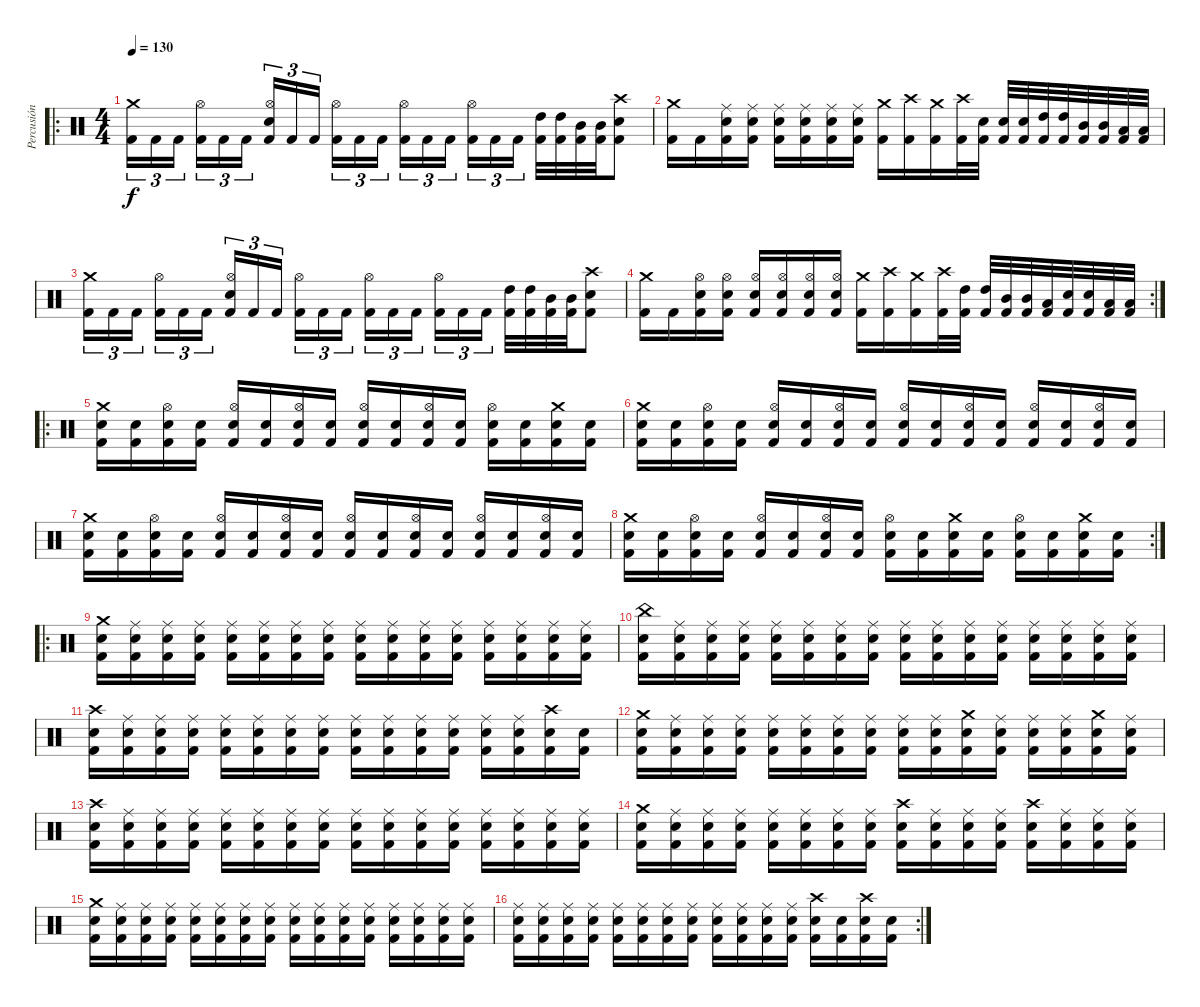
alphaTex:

\track ("Percusión" "Percusión") {instrument percussion}
\staff {score}
\articulation defaults
\ro
\ts (4 4)
\tempo 130
\clef neutral
\ks c
("Crash medium (hit)" "Kick (hit) 2").16{tu (3 2) dy f} "Kick (hit) 2".16{tu (3 2)} "Kick (hit) 2".16{tu (3 2)} ("Hi-Hat (open)" "Kick (hit) 2").16{tu (3 2)} "Kick (hit) 2".16{tu (3 2)} "Kick (hit) 2".16{tu (3 2)} ("Hi-Hat (open)" "Electric Snare (hit)" "Kick (hit) 2").16{tu (3 2)} "Kick (hit) 2".16{tu (3 2)} "Kick (hit) 2".16{tu (3 2)} ("Hi-Hat (open)" "Kick (hit) 2").16{tu (3 2)} "Kick (hit) 2".16{tu (3 2)} "Kick (hit) 2".16{tu (3 2)} ("Hi-Hat (open)" "Kick (hit) 2").16{tu (3 2)} "Kick (hit) 2".16{tu (3 2)} "Kick (hit) 2".16{tu (3 2)} ("Hi-Hat (open)" "Kick (hit) 2").16{tu (3 2)} "Kick (hit) 2".16{tu (3 2)} "Kick (hit) 2".16{tu (3 2)} ("High Tom (hit)" "Kick (hit) 2").32 ("High Tom (hit)" "Kick (hit) 2").32 ("Mid Tom (hit)" "Kick (hit) 2").32 ("Mid Tom (hit)" "Kick (hit) 2").32 ("Crash high (hit)" "Electric Snare (hit)" "Kick (hit) 2").8 |
("Crash medium (hit)" "Kick (hit) 2").16 "Kick (hit) 2".16 ("Ride (middle)" "Electric Snare (hit)" "Kick (hit) 2").16 ("Ride (middle)" "Electric Snare (hit)" "Kick (hit) 2").16 ("Ride (middle)" "Electric Snare (hit)" "Kick (hit) 2").16 ("Ride (middle)" "Electric Snare (hit)" "Kick (hit) 2").16 ("Ride (middle)" "Electric Snare (hit)" "Kick (hit) 2").16 ("Ride (middle)" "Electric Snare (hit)" "Kick (hit) 2").16 ("Crash medium (hit)" "Kick (hit) 2").16 ("Crash high (hit)" "Kick (hit) 2").16 ("Crash medium (hit)" "Kick (hit) 2").16 ("Crash high (hit)" "Kick (hit) 2").32 ("Electric Snare (hit)" "Kick (hit) 2").32 ("Electric Snare (hit)" "Kick (hit) 2").32 ("Electric Snare (hit)" "Kick (hit) 2").32 ("High Tom (hit)" "Kick (hit) 2").32 ("High Tom (hit)" "Kick (hit) 2").32 ("Mid Tom (hit)" "Kick (hit) 2").32 ("Mid Tom (hit)" "Kick (hit) 2").32 ("Low Tom (hit)" "Kick (hit) 2").32 ("Low Tom (hit)" "Kick (hit) 2").32 |
("Crash medium (hit)" "Kick (hit) 2").16{tu (3 2)} "Kick (hit) 2".16{tu (3 2)} "Kick (hit) 2".16{tu (3 2)} ("Hi-Hat (open)" "Kick (hit) 2").16{tu (3 2)} "Kick (hit) 2".16{tu (3 2)} "Kick (hit) 2".16{tu (3 2)} ("Hi-Hat (open)" "Electric Snare (hit)" "Kick (hit) 2").16{tu (3 2)} "Kick (hit) 2".16{tu (3 2)} "Kick (hit) 2".16{tu (3 2)} ("Hi-Hat (open)" "Kick (hit) 2").16{tu (3 2)} "Kick (hit) 2".16{tu (3 2)} "Kick (hit) 2".16{tu (3 2)} ("Hi-Hat (open)" "Kick (hit) 2").16{tu (3 2)} "Kick (hit) 2".16{tu (3 2)} "Kick (hit) 2".16{tu (3 2)} ("Hi-Hat (open)" "Kick (hit) 2").16{tu (3 2)} "Kick (hit) 2".16{tu (3 2)} "Kick (hit) 2".16{tu (3 2)} ("High Tom (hit)" "Kick (hit) 2").32 ("High Tom (hit)" "Kick (hit) 2").32 ("Mid Tom (hit)" "Kick (hit) 2").32 ("Mid Tom (hit)" "Kick (hit) 2").32 ("Crash high (hit)" "Electric Snare (hit)" "Kick (hit) 2").8 |
\rc 2
("Crash medium (hit)" "Kick (hit) 2").16 "Kick (hit) 2".16 ("Hi-Hat (open)" "Electric Snare (hit)" "Kick (hit) 2").16 ("Hi-Hat (open)" "Electric Snare (hit)" "Kick (hit) 2").16 ("Hi-Hat (open)" "Electric Snare (hit)" "Kick (hit) 2").16 ("Hi-Hat (open)" "Electric Snare (hit)" "Kick (hit) 2").16 ("Hi-Hat (open)" "Electric Snare (hit)" "Kick (hit) 2").16 ("Hi-Hat (open)" "Electric Snare (hit)" "Kick (hit) 2").16 ("Crash medium (hit)" "Kick (hit) 2").16 ("Crash high (hit)" "Kick (hit) 2").16 ("Crash medium (hit)" "Kick (hit) 2").16 ("Crash high (hit)" "Kick (hit) 2").32 ("High Tom (hit)" "Kick (hit) 2").32 ("High Tom (hit)" "Kick (hit) 2").32 ("Mid Tom (hit)" "Kick (hit) 2").32 ("Mid Tom (hit)" "Kick (hit) 2").32 ("Low Tom (hit)" "Kick (hit) 2").32 ("Electric Snare (hit)" "Kick (hit) 2").32 ("Electric Snare (hit)" "Kick (hit) 2").32 ("Low Tom (hit)" "Kick (hit) 2").32 ("Low Tom (hit)" "Kick (hit) 2").32 |
\ro
("Crash medium (hit)" "Electric Snare (hit)" "Kick (hit) 2").16 ("Electric Snare (hit)" "Kick (hit) 2").16 ("Hi-Hat (open)" "Electric Snare (hit)" "Kick (hit) 2").16 ("Electric Snare (hit)" "Kick (hit) 2").16 ("Hi-Hat (open)" "Electric Snare (hit)" "Kick (hit) 2").16 ("Electric Snare (hit)" "Kick (hit) 2").16 ("Hi-Hat (open)" "Electric Snare (hit)" "Kick (hit) 2").16 ("Electric Snare (hit)" "Kick (hit) 2").16 ("Hi-Hat (open)" "Electric Snare (hit)" "Kick (hit) 2").16 ("Electric Snare (hit)" "Kick (hit) 2").16 ("Hi-Hat (open)" "Electric Snare (hit)" "Kick (hit) 2").16 ("Electric Snare (hit)" "Kick (hit) 2").16 ("Hi-Hat (open)" "Electric Snare (hit)" "Kick (hit) 2").16 ("Electric Snare (hit)" "Kick (hit) 2").16 ("Crash medium (hit)" "Electric Snare (hit)" "Kick (hit) 2").16 ("Electric Snare (hit)" "Kick (hit) 2").16 |
("Crash medium (hit)" "Electric Snare (hit)" "Kick (hit) 2").16 ("Electric Snare (hit)" "Kick (hit) 2").16 ("Hi-Hat (open)" "Electric Snare (hit)" "Kick (hit) 2").16 ("Electric Snare (hit)" "Kick (hit) 2").16 ("Hi-Hat (open)" "Electric Snare (hit)" "Kick (hit) 2").16 ("Electric Snare (hit)" "Kick (hit) 2").16 ("Hi-Hat (open)" "Electric Snare (hit)" "Kick (hit) 2").16 ("Electric Snare (hit)" "Kick (hit) 2").16 ("Hi-Hat (open)" "Electric Snare (hit)" "Kick (hit) 2").16 ("Electric Snare (hit)" "Kick (hit) 2").16 ("Hi-Hat (open)" "Electric Snare (hit)" "Kick (hit) 2").16 ("Electric Snare (hit)" "Kick (hit) 2").16 ("Hi-Hat (open)" "Electric Snare (hit)" "Kick (hit) 2").16 ("Electric Snare (hit)" "Kick (hit) 2").16 ("Hi-Hat (open)" "Electric Snare (hit)" "Kick (hit) 2").16 ("Electric Snare (hit)" "Kick (hit) 2").16 |
("Crash medium (hit)" "Electric Snare (hit)" "Kick (hit) 2").16 ("Electric Snare (hit)" "Kick (hit) 2").16 ("Hi-Hat (open)" "Electric Snare (hit)" "Kick (hit) 2").16 ("Electric Snare (hit)" "Kick (hit) 2").16 ("Hi-Hat (open)" "Electric Snare (hit)" "Kick (hit) 2").16 ("Electric Snare (hit)" "Kick (hit) 2").16 ("Hi-Hat (open)" "Electric Snare (hit)" "Kick (hit) 2").16 ("Electric Snare (hit)" "Kick (hit) 2").16 ("Hi-Hat (open)" "Electric Snare (hit)" "Kick (hit) 2").16 ("Electric Snare (hit)" "Kick (hit) 2").16 ("Hi-Hat (open)" "Electric Snare (hit)" "Kick (hit) 2").16 ("Electric Snare (hit)" "Kick (hit) 2").16 ("Hi-Hat (open)" "Electric Snare (hit)" "Kick (hit) 2").16 ("Electric Snare (hit)" "Kick (hit) 2").16 ("Hi-Hat (open)" "Electric Snare (hit)" "Kick (hit) 2").16 ("Electric Snare (hit)" "Kick (hit) 2").16 |
\rc 2
("Crash medium (hit)" "Electric Snare (hit)" "Kick (hit) 2").16 ("Electric Snare (hit)" "Kick (hit) 2").16 ("Hi-Hat (open)" "Electric Snare (hit)" "Kick (hit) 2").16 ("Electric Snare (hit)" "Kick (hit) 2").16 ("Hi-Hat (open)" "Electric Snare (hit)" "Kick (hit) 2").16 ("Electric Snare (hit)" "Kick (hit) 2").16 ("Hi-Hat (open)" "Electric Snare (hit)" "Kick (hit) 2").16 ("Electric Snare (hit)" "Kick (hit) 2").16 ("Hi-Hat (open)" "Electric Snare (hit)" "Kick (hit) 2").16 ("Electric Snare (hit)" "Kick (hit) 2").16 ("Crash medium (hit)" "Electric Snare (hit)" "Kick (hit) 2").16 ("Electric Snare (hit)" "Kick (hit) 2").16 ("Hi-Hat (open)" "Electric Snare (hit)" "Kick (hit) 2").16 ("Electric Snare (hit)" "Kick (hit) 2").16 ("Crash medium (hit)" "Electric Snare (hit)" "Kick (hit) 2").16 ("Electric Snare (hit)" "Kick (hit) 2").16 |
\ro
("Crash medium (hit)" "Electric Snare (hit)" "Kick (hit) 2").16 ("Ride (middle)" "Electric Snare (hit)" "Kick (hit) 2").16 ("Ride (middle)" "Electric Snare (hit)" "Kick (hit) 2").16 ("Ride (middle)" "Electric Snare (hit)" "Kick (hit) 2").16 ("Ride (middle)" "Electric Snare (hit)" "Kick (hit) 2").16 ("Ride (middle)" "Electric Snare (hit)" "Kick (hit) 2").16 ("Ride (middle)" "Electric Snare (hit)" "Kick (hit) 2").16 ("Ride (middle)" "Electric Snare (hit)" "Kick (hit) 2").16 ("Ride (middle)" "Electric Snare (hit)" "Kick (hit) 2").16 ("Ride (middle)" "Electric Snare (hit)" "Kick (hit) 2").16 ("Ride (middle)" "Electric Snare (hit)" "Kick (hit) 2").16 ("Ride (middle)" "Electric Snare (hit)" "Kick (hit) 2").16 ("Ride (middle)" "Electric Snare (hit)" "Kick (hit) 2").16 ("Ride (middle)" "Electric Snare (hit)" "Kick (hit) 2").16 ("Ride (middle)" "Electric Snare (hit)" "Kick (hit) 2").16 ("Ride (middle)" "Electric Snare (hit)" "Kick (hit) 2").16 |
("China (hit)" "Electric Snare (hit)" "Kick (hit) 2").16 ("Ride (middle)" "Electric Snare (hit)" "Kick (hit) 2").16 ("Ride (middle)" "Electric Snare (hit)" "Kick (hit) 2").16 ("Ride (middle)" "Electric Snare (hit)" "Kick (hit) 2").16 ("Ride (middle)" "Electric Snare (hit)" "Kick (hit) 2").16 ("Ride (middle)" "Electric Snare (hit)" "Kick (hit) 2").16 ("Ride (middle)" "Electric Snare (hit)" "Kick (hit) 2").16 ("Ride (middle)" "Electric Snare (hit)" "Kick (hit) 2").16 ("Ride (middle)" "Electric Snare (hit)" "Kick (hit) 2").16 ("Ride (middle)" "Electric Snare (hit)" "Kick (hit) 2").16 ("Ride (middle)" "Electric Snare (hit)" "Kick (hit) 2").16 ("Ride (middle)" "Electric Snare (hit)" "Kick (hit) 2").16 ("Ride (middle)" "Electric Snare (hit)" "Kick (hit) 2").16 ("Ride (middle)" "Electric Snare (hit)" "Kick (hit) 2").16 ("Ride (middle)" "Electric Snare (hit)" "Kick (hit) 2").16 ("Ride (middle)" "Electric Snare (hit)" "Kick (hit) 2").16 |
("Crash high (hit)" "Electric Snare (hit)" "Kick (hit) 2").16 ("Ride (middle)" "Electric Snare (hit)" "Kick (hit) 2").16 ("Ride (middle)" "Electric Snare (hit)" "Kick (hit) 2").16 ("Ride (middle)" "Electric Snare (hit)" "Kick (hit) 2").16 ("Ride (middle)" "Electric Snare (hit)" "Kick (hit) 2").16 ("Ride (middle)" "Electric Snare (hit)" "Kick (hit) 2").16 ("Ride (middle)" "Electric Snare (hit)" "Kick (hit) 2").16 ("Ride (middle)" "Electric Snare (hit)" "Kick (hit) 2").16 ("Ride (middle)" "Electric Snare (hit)" "Kick (hit) 2").16 ("Ride (middle)" "Electric Snare (hit)" "Kick (hit) 2").16 ("Ride (middle)" "Electric Snare (hit)" "Kick (hit) 2").16 ("Ride (middle)" "Electric Snare (hit)" "Kick (hit) 2").16 ("Ride (middle)" "Electric Snare (hit)" "Kick (hit) 2").16 ("Ride (middle)" "Electric Snare (hit)" "Kick (hit) 2").16 ("Crash high (hit)" "Electric Snare (hit)" "Kick (hit) 2").16 ("Electric Snare (hit)" "Kick (hit) 2").16 |
("Crash medium (hit)" "Electric Snare (hit)" "Kick (hit) 2").16 ("Ride (middle)" "Electric Snare (hit)" "Kick (hit) 2").16 ("Ride (middle)" "Electric Snare (hit)" "Kick (hit) 2").16 ("Ride (middle)" "Electric Snare (hit)" "Kick (hit) 2").16 ("Ride (middle)" "Electric Snare (hit)" "Kick (hit) 2").16 ("Ride (middle)" "Electric Snare (hit)" "Kick (hit) 2").16 ("Ride (middle)" "Electric Snare (hit)" "Kick (hit) 2").16 ("Ride (middle)" "Electric Snare (hit)" "Kick (hit) 2").16 ("Ride (middle)" "Electric Snare (hit)" "Kick (hit) 2").16 ("Ride (middle)" "Electric Snare (hit)" "Kick (hit) 2").16 ("Crash medium (hit)" "Electric Snare (hit)" "Kick (hit) 2").16 ("Ride (middle)" "Electric Snare (hit)" "Kick (hit) 2").16 ("Ride (middle)" "Electric Snare (hit)" "Kick (hit) 2").16 ("Ride (middle)" "Electric Snare (hit)" "Kick (hit) 2").16 ("Crash medium (hit)" "Electric Snare (hit)" "Kick (hit) 2").16 ("Ride (middle)" "Electric Snare (hit)" "Kick (hit) 2").16 |
("Crash high (hit)" "Electric Snare (hit)" "Kick (hit) 2").16 ("Ride (middle)" "Electric Snare (hit)" "Kick (hit) 2").16 ("Ride (middle)" "Electric Snare (hit)" "Kick (hit) 2").16 ("Ride (middle)" "Electric Snare (hit)" "Kick (hit) 2").16 ("Ride (middle)" "Electric Snare (hit)" "Kick (hit) 2").16 ("Ride (middle)" "Electric Snare (hit)" "Kick (hit) 2").16 ("Ride (middle)" "Electric Snare (hit)" "Kick (hit) 2").16 ("Ride (middle)" "Electric Snare (hit)" "Kick (hit) 2").16 ("Ride (middle)" "Electric Snare (hit)" "Kick (hit) 2").16 ("Ride (middle)" "Electric Snare (hit)" "Kick (hit) 2").16 ("Ride (middle)" "Electric Snare (hit)" "Kick (hit) 2").16 ("Ride (middle)" "Electric Snare (hit)" "Kick (hit) 2").16 ("Ride (middle)" "Electric Snare (hit)" "Kick (hit) 2").16 ("Ride (middle)" "Electric Snare (hit)" "Kick (hit) 2").16 ("Ride (middle)" "Electric Snare (hit)" "Kick (hit) 2").16 ("Ride (middle)" "Electric Snare (hit)" "Kick (hit) 2").16 |
("Crash medium (hit)" "Electric Snare (hit)" "Kick (hit) 2").16 ("Ride (middle)" "Electric Snare (hit)" "Kick (hit) 2").16 ("Ride (middle)" "Electric Snare (hit)" "Kick (hit) 2").16 ("Ride (middle)" "Electric Snare (hit)" "Kick (hit) 2").16 ("Ride (middle)" "Electric Snare (hit)" "Kick (hit) 2").16 ("Ride (middle)" "Electric Snare (hit)" "Kick (hit) 2").16 ("Ride (middle)" "Electric Snare (hit)" "Kick (hit) 2").16 ("Ride (middle)" "Electric Snare (hit)" "Kick (hit) 2").16 ("Crash high (hit)" "Electric Snare (hit)" "Kick (hit) 2").16 ("Ride (middle)" "Electric Snare (hit)" "Kick (hit) 2").16 ("Ride (middle)" "Electric Snare (hit)" "Kick (hit) 2").16 ("Ride (middle)" "Electric Snare (hit)" "Kick (hit) 2").16 ("Crash high (hit)" "Electric Snare (hit)" "Kick (hit) 2").16 ("Ride (middle)" "Electric Snare (hit)" "Kick (hit) 2").16 ("Ride (middle)" "Electric Snare (hit)" "Kick (hit) 2").16 ("Ride (middle)" "Electric Snare (hit)" "Kick (hit) 2").16 |
("Crash medium (hit)" "Electric Snare (hit)" "Kick (hit) 2").16 ("Ride (middle)" "Electric Snare (hit)" "Kick (hit) 2").16 ("Ride (middle)" "Electric Snare (hit)" "Kick (hit) 2").16 ("Ride (middle)" "Electric Snare (hit)" "Kick (hit) 2").16 ("Ride (middle)" "Electric Snare (hit)" "Kick (hit) 2").16 ("Ride (middle)" "Electric Snare (hit)" "Kick (hit) 2").16 ("Ride (middle)" "Electric Snare (hit)" "Kick (hit) 2").16 ("Ride (middle)" "Electric Snare (hit)" "Kick (hit) 2").16 ("Ride (middle)" "Electric Snare (hit)" "Kick (hit) 2").16 ("Ride (middle)" "Electric Snare (hit)" "Kick (hit) 2").16 ("Ride (middle)" "Electric Snare (hit)" "Kick (hit) 2").16 ("Ride (middle)" "Electric Snare (hit)" "Kick (hit) 2").16 ("Ride (middle)" "Electric Snare (hit)" "Kick (hit) 2").16 ("Ride (middle)" "Electric Snare (hit)" "Kick (hit) 2").16 ("Ride (middle)" "Electric Snare (hit)" "Kick (hit) 2").16 ("Ride (middle)" "Electric Snare (hit)" "Kick (hit) 2").16 |
\rc 2
("Ride (middle)" "Electric Snare (hit)" "Kick (hit) 2").16 ("Ride (middle)" "Electric Snare (hit)" "Kick (hit) 2").16 ("Ride (middle)" "Electric Snare (hit)" "Kick (hit) 2").16 ("Ride (middle)" "Electric Snare (hit)" "Kick (hit) 2").16 ("Ride (middle)" "Electric Snare (hit)" "Kick (hit) 2").16 ("Ride (middle)" "Electric Snare (hit)" "Kick (hit) 2").16 ("Ride (middle)" "Electric Snare (hit)" "Kick (hit) 2").16 ("Ride (middle)" "Electric Snare (hit)" "Kick (hit) 2").16 ("Ride (middle)" "Electric Snare (hit)" "Kick (hit) 2").16 ("Ride (middle)" "Electric Snare (hit)" "Kick (hit) 2").16 ("Ride (middle)" "Electric Snare (hit)" "Kick (hit) 2").16 ("Ride (middle)" "Electric Snare (hit)" "Kick (hit) 2").16 ("Crash high (hit)" "Electric Snare (hit)" "Kick (hit) 2").16 ("Electric Snare (hit)" "Kick (hit) 2").16 ("Crash high (hit)" "Electric Snare (hit)" "Kick (hit) 2").16 ("Electric Snare (hit)" "Kick (hit) 2").16
